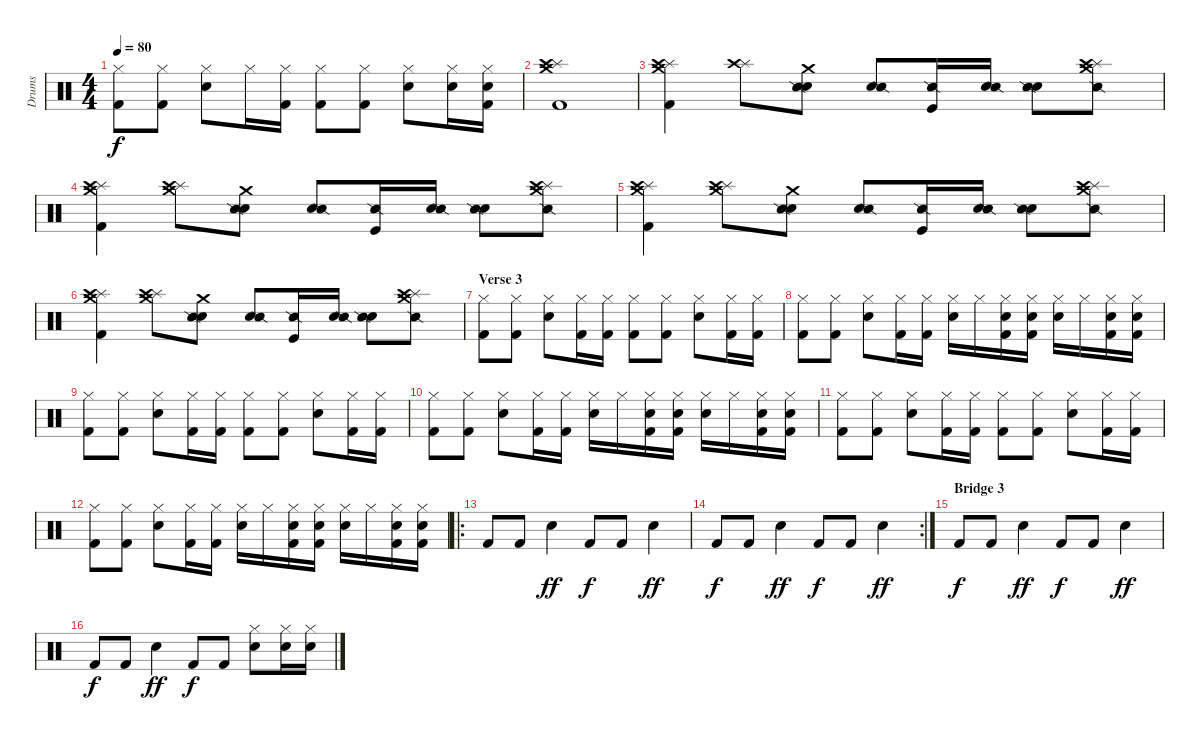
\track ("Drums" "Drums") {instrument percussion}
\staff {score}
\articulation defaults
\ts (4 4)
\tempo 80
\clef neutral
\ks c
("Hi-Hat (closed)" "Kick (hit) 2").8{dy f} ("Hi-Hat (closed)" "Kick (hit) 2").8 ("Hi-Hat (closed)" "Snare (hit) 2").8 "Hi-Hat (closed)".16 ("Hi-Hat (closed)" "Kick (hit) 2").16 ("Hi-Hat (closed)" "Kick (hit) 2").8 ("Hi-Hat (closed)" "Kick (hit) 2").8 ("Hi-Hat (closed)" "Snare (hit) 2").8 ("Hi-Hat (closed)" "Snare (hit) 2").16 ("Hi-Hat (closed)" "Snare (hit) 2" "Kick (hit) 2").16 |
("Crash medium (hit)" "Splash (hit)" "Crash high (hit)" "Kick (hit) 2").1 |
("Crash medium (hit)" "Splash (hit)" "Crash high (hit)" "Kick (hit) 2").4 ("Splash (hit)" "Crash high (hit)").8 ("Crash medium (hit)" "Metronome (bell)" "Snare (side stick) 2").8 ("Metronome (bell)" "Snare (side stick) 2").8 ("Kick (hit)" "Snare (side stick) 2").16 ("Metronome (bell)" "Snare (side stick) 2").16 ("Metronome (bell)" "Snare (side stick) 2").8 ("Crash medium (hit)" "Splash (hit)" "Crash high (hit)" "Snare (side stick) 2").8 |
("Crash medium (hit)" "Splash (hit)" "Crash high (hit)" "Kick (hit) 2").4 ("Crash medium (hit)" "Splash (hit)" "Crash high (hit)").8 ("Crash medium (hit)" "Metronome (bell)" "Snare (side stick) 2").8 ("Metronome (bell)" "Snare (side stick) 2").8 ("Kick (hit)" "Snare (side stick) 2").16 ("Metronome (bell)" "Snare (side stick) 2").16 ("Metronome (bell)" "Snare (side stick) 2").8 ("Crash medium (hit)" "Splash (hit)" "Crash high (hit)" "Snare (side stick) 2").8 |
("Crash medium (hit)" "Splash (hit)" "Crash high (hit)" "Kick (hit) 2").4 ("Crash medium (hit)" "Splash (hit)" "Crash high (hit)").8 ("Crash medium (hit)" "Metronome (bell)" "Snare (side stick) 2").8 ("Metronome (bell)" "Snare (side stick) 2").8 ("Kick (hit)" "Snare (side stick) 2").16 ("Metronome (bell)" "Snare (side stick) 2").16 ("Metronome (bell)" "Snare (side stick) 2").8 ("Crash medium (hit)" "Splash (hit)" "Crash high (hit)" "Snare (side stick) 2").8 |
("Crash medium (hit)" "Splash (hit)" "Crash high (hit)" "Kick (hit) 2").4 ("Crash medium (hit)" "Splash (hit)" "Crash high (hit)").8 ("Crash medium (hit)" "Metronome (bell)" "Snare (side stick) 2").8 ("Metronome (bell)" "Snare (side stick) 2").8 ("Kick (hit)" "Snare (side stick) 2").16 ("Metronome (bell)" "Snare (side stick) 2").16 ("Metronome (bell)" "Snare (side stick) 2").8 ("Crash medium (hit)" "Splash (hit)" "Crash high (hit)" "Snare (side stick) 2").8 |
\section ("" "Verse 3")
("Hi-Hat (closed)" "Kick (hit) 2").8 ("Hi-Hat (closed)" "Kick (hit) 2").8 ("Hi-Hat (closed)" "Snare (hit) 2").8 ("Hi-Hat (closed)" "Kick (hit) 2").16 ("Hi-Hat (closed)" "Kick (hit) 2").16 ("Hi-Hat (closed)" "Kick (hit) 2").8 ("Hi-Hat (closed)" "Kick (hit) 2").8 ("Hi-Hat (closed)" "Snare (hit) 2").8 ("Hi-Hat (closed)" "Kick (hit) 2").16 ("Hi-Hat (closed)" "Kick (hit) 2").16 |
("Hi-Hat (closed)" "Kick (hit) 2").8 ("Hi-Hat (closed)" "Kick (hit) 2").8 ("Hi-Hat (closed)" "Snare (hit) 2").8 ("Hi-Hat (closed)" "Kick (hit) 2").16 ("Hi-Hat (closed)" "Kick (hit) 2").16 ("Hi-Hat (closed)" "Snare (hit) 2").16 "Hi-Hat (closed)".16 ("Hi-Hat (closed)" "Snare (hit) 2" "Kick (hit) 2").16 ("Hi-Hat (closed)" "Snare (hit) 2" "Kick (hit) 2").16 ("Hi-Hat (closed)" "Snare (hit) 2").16 "Hi-Hat (closed)".16 ("Hi-Hat (closed)" "Snare (hit) 2" "Kick (hit) 2").16 ("Hi-Hat (closed)" "Snare (hit) 2" "Kick (hit) 2").16 |
("Hi-Hat (closed)" "Kick (hit) 2").8 ("Hi-Hat (closed)" "Kick (hit) 2").8 ("Hi-Hat (closed)" "Snare (hit) 2").8 ("Hi-Hat (closed)" "Kick (hit) 2").16 ("Hi-Hat (closed)" "Kick (hit) 2").16 ("Hi-Hat (closed)" "Kick (hit) 2").8 ("Hi-Hat (closed)" "Kick (hit) 2").8 ("Hi-Hat (closed)" "Snare (hit) 2").8 ("Hi-Hat (closed)" "Kick (hit) 2").16 ("Hi-Hat (closed)" "Kick (hit) 2").16 |
("Hi-Hat (closed)" "Kick (hit) 2").8 ("Hi-Hat (closed)" "Kick (hit) 2").8 ("Hi-Hat (closed)" "Snare (hit) 2").8 ("Hi-Hat (closed)" "Kick (hit) 2").16 ("Hi-Hat (closed)" "Kick (hit) 2").16 ("Hi-Hat (closed)" "Snare (hit) 2").16 "Hi-Hat (closed)".16 ("Hi-Hat (closed)" "Snare (hit) 2" "Kick (hit) 2").16 ("Hi-Hat (closed)" "Snare (hit) 2" "Kick (hit) 2").16 ("Hi-Hat (closed)" "Snare (hit) 2").16 "Hi-Hat (closed)".16 ("Hi-Hat (closed)" "Snare (hit) 2" "Kick (hit) 2").16 ("Hi-Hat (closed)" "Snare (hit) 2" "Kick (hit) 2").16 |
("Hi-Hat (closed)" "Kick (hit) 2").8 ("Hi-Hat (closed)" "Kick (hit) 2").8 ("Hi-Hat (closed)" "Snare (hit) 2").8 ("Hi-Hat (closed)" "Kick (hit) 2").16 ("Hi-Hat (closed)" "Kick (hit) 2").16 ("Hi-Hat (closed)" "Kick (hit) 2").8 ("Hi-Hat (closed)" "Kick (hit) 2").8 ("Hi-Hat (closed)" "Snare (hit) 2").8 ("Hi-Hat (closed)" "Kick (hit) 2").16 ("Hi-Hat (closed)" "Kick (hit) 2").16 |
("Hi-Hat (closed)" "Kick (hit) 2").8 ("Hi-Hat (closed)" "Kick (hit) 2").8 ("Hi-Hat (closed)" "Snare (hit) 2").8 ("Hi-Hat (closed)" "Kick (hit) 2").16 ("Hi-Hat (closed)" "Kick (hit) 2").16 ("Hi-Hat (closed)" "Snare (hit) 2").16 "Hi-Hat (closed)".16 ("Hi-Hat (closed)" "Snare (hit) 2" "Kick (hit) 2").16 ("Hi-Hat (closed)" "Snare (hit) 2" "Kick (hit) 2").16 ("Hi-Hat (closed)" "Snare (hit) 2").16 "Hi-Hat (closed)".16 ("Hi-Hat (closed)" "Snare (hit) 2" "Kick (hit) 2").16 ("Hi-Hat (closed)" "Snare (hit) 2" "Kick (hit) 2").16 |
\ro "Kick (hit) 2".8 "Kick (hit) 2".8 "Snare (hit) 2".4{dy ff} "Kick (hit) 2".8{dy f} "Kick (hit) 2".8 "Snare (hit) 2".4{dy ff}
|
\rc 2 "Kick (hit) 2".8{dy f} "Kick (hit) 2".8 "Snare (hit) 2".4{dy ff} "Kick (hit) 2".8{dy f} "Kick (hit) 2".8 "Snare (hit) 2".4{dy ff}
|
\section ("" "Bridge 3")
"Kick (hit) 2".8{dy f} "Kick (hit) 2".8 "Snare (hit) 2".4{dy ff} "Kick (hit) 2".8{dy f} "Kick (hit) 2".8 "Snare (hit) 2".4{dy ff} |
"Kick (hit) 2".8{dy f} "Kick (hit) 2".8 "Snare (hit) 2".4{dy ff} "Kick (hit) 2".8{dy f} "Kick (hit) 2".8 ("Hi-Hat (closed)" "Snare (hit) 2").8 ("Hi-Hat (closed)" "Snare (hit) 2").16 ("Hi-Hat (closed)" "Snare (hit) 2").16
